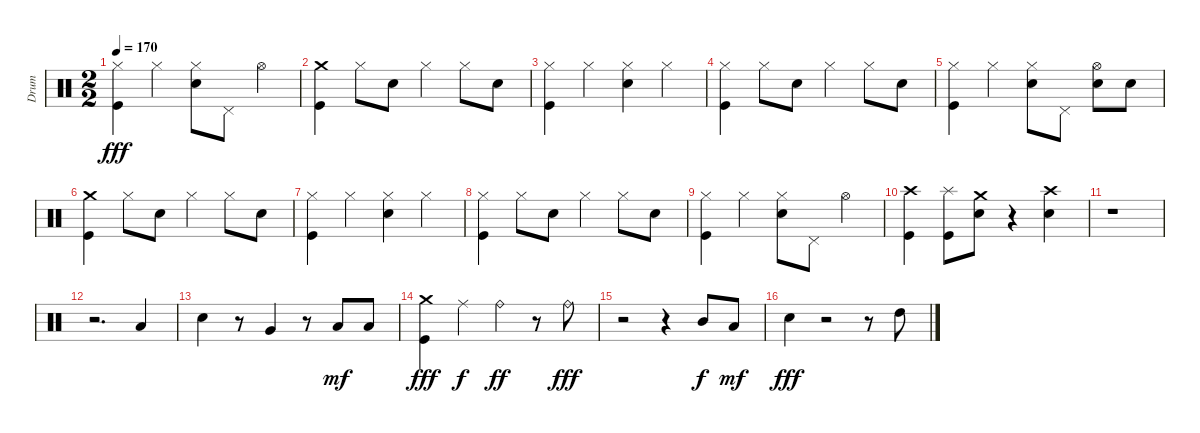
\track ("Drum" "Drum") {instrument percussion}
\staff {score}
\articulation defaults
\ts (2 2)
\tempo 170
\clef neutral
\ks c
("Kick (hit)" "Hi-Hat (closed)").4{dy fff} "Hi-Hat (closed)".4 ("Electric Snare (hit)" "Hi-Hat (closed)").8 "Pedal Hi-Hat (hit)".8 "Hi-Hat (open)".4 |
("Crash medium (hit)" "Kick (hit)").4 "Hi-Hat (closed)".8 "Electric Snare (hit)".8 "Hi-Hat (closed)".4 "Hi-Hat (closed)".8 "Electric Snare (hit)".8 |
("Kick (hit)" "Hi-Hat (closed)").4 "Hi-Hat (closed)".4 ("Electric Snare (hit)" "Hi-Hat (closed)").4 "Hi-Hat (closed)".4 |
("Kick (hit)" "Hi-Hat (closed)").4 "Hi-Hat (closed)".8 "Electric Snare (hit)".8 "Hi-Hat (closed)".4 "Hi-Hat (closed)".8 "Electric Snare (hit)".8 |
("Kick (hit)" "Hi-Hat (closed)").4 "Hi-Hat (closed)".4 ("Electric Snare (hit)" "Hi-Hat (closed)").8 "Pedal Hi-Hat (hit)".8 ("Electric Snare (hit)" "Hi-Hat (open)").8 "Electric Snare (hit)".8 |
("Crash medium (hit)" "Kick (hit)").4 "Hi-Hat (closed)".8 "Electric Snare (hit)".8 "Hi-Hat (closed)".4 "Hi-Hat (closed)".8 "Electric Snare (hit)".8 |
("Kick (hit)" "Hi-Hat (closed)").4 "Hi-Hat (closed)".4 ("Electric Snare (hit)" "Hi-Hat (closed)").4 "Hi-Hat (closed)".4 |
("Kick (hit)" "Hi-Hat (closed)").4 "Hi-Hat (closed)".8 "Electric Snare (hit)".8 "Hi-Hat (closed)".4 "Hi-Hat (closed)".8 "Electric Snare (hit)".8 |
("Kick (hit)" "Hi-Hat (closed)").4 "Hi-Hat (closed)".4 ("Electric Snare (hit)" "Hi-Hat (closed)").8 "Pedal Hi-Hat (hit)".8 "Hi-Hat (open)".4 |
("Crash high (hit)" "Kick (hit)").4 ("Splash (hit)" "Kick (hit)").8 ("Crash medium (hit)" "Electric Snare (hit)").8 r.4 ("Electric Snare (hit)" "Crash high (hit)").4 |
r.1 |
r.2{d} "Low Tom (hit)".4 |
"Electric Snare (hit)".4 r.8 "Very Low Tom (hit)".4 r.8 "Low Floor Tom (hit)".8{dy mf} "Low Floor Tom (hit)".8 |
("Crash medium (hit)" "Kick (hit)").4{dy fff} "Ride (middle)".4{dy f} "Ride (bell)".4{dy ff} r.8 "Ride (bell)".8{dy fff} |
r.2 r.4 "Mid Tom (hit)".8{dy f} "Low Tom (hit)".8{dy mf} |
"Electric Snare (hit)".4{dy fff} r.2 r.8 "High Tom (hit)".8
